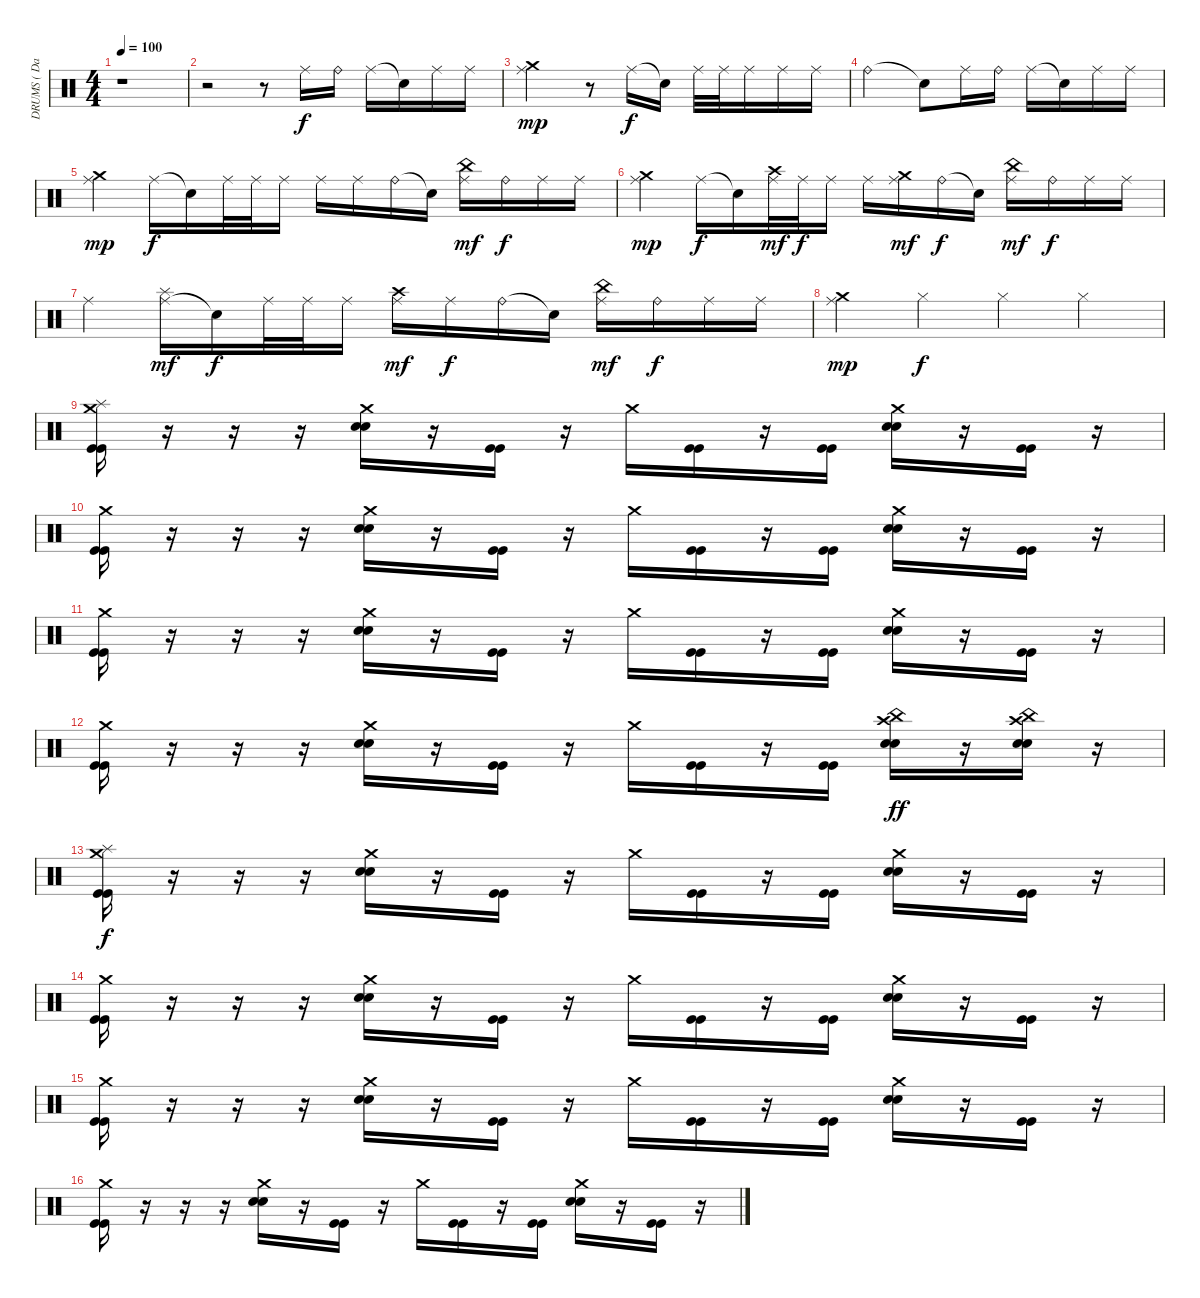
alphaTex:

\track ("DRUMS ( David ) - Wally Balljacker" "DRUMS ( Da") {instrument percussion}
\staff {score}
\articulation defaults
\ts (4 4)
\tempo 100
\clef neutral
\ks c
r.1{dy f} |
r.2 r.8 "Ride (middle)".16 "Ride (bell)".16 "Ride (middle)".16 "Snare (hit)"{t}.16 "Ride (middle)".16 "Ride (middle)".16 |
("Crash medium (hit)" "Ride (middle)").2{dy mp} r.8 "Ride (middle)".16{dy f} "Snare (hit)"{t}.16 "Ride (middle)".32 "Ride (middle)".32 "Ride (middle)".16 "Ride (middle)".16 "Ride (middle)".16 |
"Ride (bell)".2 "Snare (hit)"{t}.8 "Ride (middle)".16 "Ride (bell)".16 "Ride (middle)".16 "Snare (hit)"{t}.16 "Ride (middle)".16 "Ride (middle)".16 |
("Crash medium (hit)" "Ride (middle)").4{dy mp} "Ride (middle)".16{dy f} "Snare (hit)"{t}.16 "Ride (middle)".32 "Ride (middle)".32 "Ride (middle)".16 "Ride (middle)".16 "Ride (middle)".16 "Ride (bell)".16 "Snare (hit)"{t}.16 ("Ride (middle)" "China (hit)").16{dy mf} "Ride (bell)".16{dy f} "Ride (middle)".16 "Ride (middle)".16 |
("Crash medium (hit)" "Ride (middle)").4{dy mp} "Ride (middle)".16{dy f} "Snare (hit)"{t}.16 ("Ride (middle)" "Crash high (hit)").32{dy mf} "Ride (middle)".32{dy f} "Ride (middle)".16 "Ride (middle)".16 ("Ride (middle)" "Crash medium (hit)").16{dy mf} "Ride (bell)".16{dy f} "Snare (hit)"{t}.16 ("Ride (middle)" "China (hit)").16{dy mf} "Ride (bell)".16{dy f} "Ride (middle)".16 "Ride (middle)".16 |
"Ride (middle)".4 ("Ride (middle)" "Splash (hit)").16{dy mf} "Snare (hit)"{t}.16{dy f} "Ride (middle)".32 "Ride (middle)".32 "Ride (middle)".16 ("Ride (middle)" "Crash high (hit)").16{dy mf} "Ride (middle)".16{dy f} "Ride (bell)".16 "Snare (hit)"{t}.16 ("Ride (middle)" "China (hit)").16{dy mf} "Ride (bell)".16{dy f} "Ride (middle)".16 "Ride (middle)".16 |
("Crash medium (hit)" "Ride (middle)").4{dy mp} "Hi-Hat (closed)".4{dy f} "Hi-Hat (closed)".4 "Hi-Hat (closed)".4 |
("Crash medium (hit)" "Splash (hit)" "Kick (hit)" "Kick (hit)").16 r.16 r.16 r.16 ("Crash medium (hit)" "Electric Snare (hit)" "Electric Snare (hit)").16 r.16 ("Kick (hit)" "Kick (hit)").16 r.16 "Crash medium (hit)".16 ("Kick (hit)" "Kick (hit)").16 r.16 ("Kick (hit)" "Kick (hit)").16 ("Crash medium (hit)" "Electric Snare (hit)" "Electric Snare (hit)").16 r.16 ("Kick (hit)" "Kick (hit)").16 r.16 |
("Crash medium (hit)" "Kick (hit)" "Kick (hit)").16 r.16 r.16 r.16 ("Crash medium (hit)" "Electric Snare (hit)" "Electric Snare (hit)").16 r.16 ("Kick (hit)" "Kick (hit)").16 r.16 "Crash medium (hit)".16 ("Kick (hit)" "Kick (hit)").16 r.16 ("Kick (hit)" "Kick (hit)").16 ("Crash medium (hit)" "Electric Snare (hit)" "Electric Snare (hit)").16 r.16 ("Kick (hit)" "Kick (hit)").16 r.16 |
("Crash medium (hit)" "Kick (hit)" "Kick (hit)").16 r.16 r.16 r.16 ("Crash medium (hit)" "Electric Snare (hit)" "Electric Snare (hit)").16 r.16 ("Kick (hit)" "Kick (hit)").16 r.16 "Crash medium (hit)".16 ("Kick (hit)" "Kick (hit)").16 r.16 ("Kick (hit)" "Kick (hit)").16 ("Crash medium (hit)" "Electric Snare (hit)" "Electric Snare (hit)").16 r.16 ("Kick (hit)" "Kick (hit)").16 r.16 |
("Crash medium (hit)" "Kick (hit)" "Kick (hit)").16 r.16 r.16 r.16 ("Crash medium (hit)" "Electric Snare (hit)" "Electric Snare (hit)").16 r.16 ("Kick (hit)" "Kick (hit)").16 r.16 "Crash medium (hit)".16 ("Kick (hit)" "Kick (hit)").16 r.16 ("Kick (hit)" "Kick (hit)").16 ("Crash high (hit)" "China (hit)" "Electric Snare (hit)" "Electric Snare (hit)").16{dy ff} r.16 ("Crash high (hit)" "China (hit)" "Electric Snare (hit)" "Electric Snare (hit)").16 r.16 |
("Crash medium (hit)" "Splash (hit)" "Kick (hit)" "Kick (hit)").16{dy f} r.16 r.16 r.16 ("Crash medium (hit)" "Electric Snare (hit)" "Electric Snare (hit)").16 r.16 ("Kick (hit)" "Kick (hit)").16 r.16 "Crash medium (hit)".16 ("Kick (hit)" "Kick (hit)").16 r.16 ("Kick (hit)" "Kick (hit)").16 ("Crash medium (hit)" "Electric Snare (hit)" "Electric Snare (hit)").16 r.16 ("Kick (hit)" "Kick (hit)").16 r.16 |
("Crash medium (hit)" "Kick (hit)" "Kick (hit)").16 r.16 r.16 r.16 ("Crash medium (hit)" "Electric Snare (hit)" "Electric Snare (hit)").16 r.16 ("Kick (hit)" "Kick (hit)").16 r.16 "Crash medium (hit)".16 ("Kick (hit)" "Kick (hit)").16 r.16 ("Kick (hit)" "Kick (hit)").16 ("Crash medium (hit)" "Electric Snare (hit)" "Electric Snare (hit)").16 r.16 ("Kick (hit)" "Kick (hit)").16 r.16 |
("Crash medium (hit)" "Kick (hit)" "Kick (hit)").16 r.16 r.16 r.16 ("Crash medium (hit)" "Electric Snare (hit)" "Electric Snare (hit)").16 r.16 ("Kick (hit)" "Kick (hit)").16 r.16 "Crash medium (hit)".16 ("Kick (hit)" "Kick (hit)").16 r.16 ("Kick (hit)" "Kick (hit)").16 ("Crash medium (hit)" "Electric Snare (hit)" "Electric Snare (hit)").16 r.16 ("Kick (hit)" "Kick (hit)").16 r.16 |
("Crash medium (hit)" "Kick (hit)" "Kick (hit)").16 r.16 r.16 r.16 ("Crash medium (hit)" "Electric Snare (hit)" "Electric Snare (hit)").16 r.16 ("Kick (hit)" "Kick (hit)").16 r.16 "Crash medium (hit)".16 ("Kick (hit)" "Kick (hit)").16 r.16 ("Kick (hit)" "Kick (hit)").16 ("Crash medium (hit)" "Electric Snare (hit)" "Electric Snare (hit)").16 r.16 ("Kick (hit)" "Kick (hit)").16 r.16
